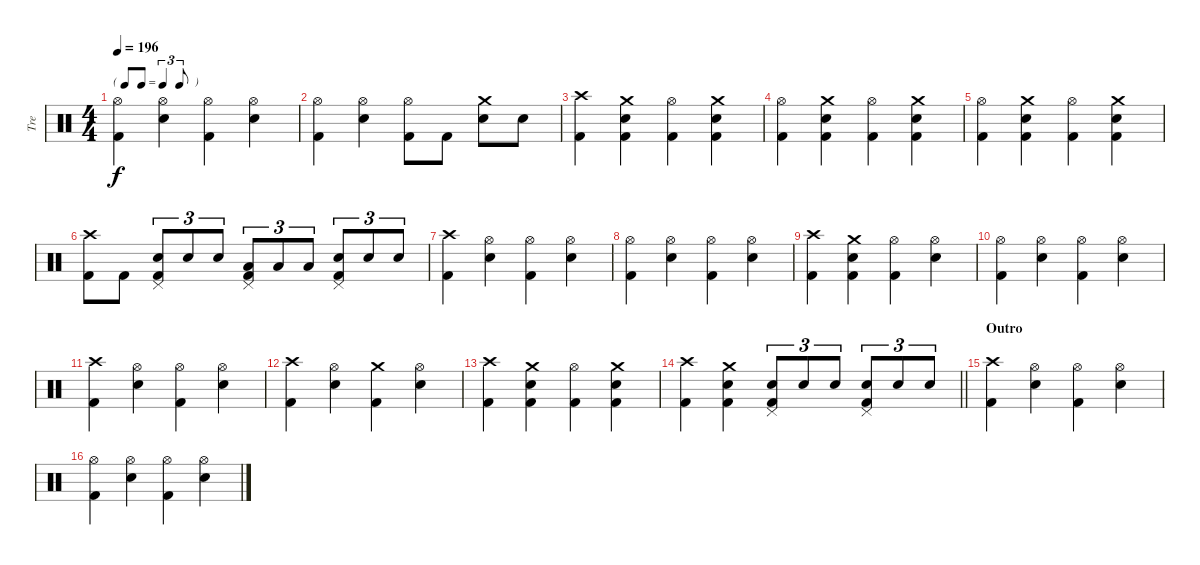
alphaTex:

\track ("Tre" "Tre") {instrument percussion}
\staff {score}
\articulation defaults
\ts (4 4)
\tf triplet8th
\tempo 196
\clef neutral
\ks c
("Hi-Hat (open)" "Kick (hit) 2").4{dy f} ("Hi-Hat (open)" "Snare (hit) 2").4 ("Hi-Hat (open)" "Kick (hit) 2").4 ("Hi-Hat (open)" "Snare (hit) 2").4 |
("Hi-Hat (open)" "Kick (hit) 2").4 ("Hi-Hat (open)" "Snare (hit) 2").4 ("Hi-Hat (open)" "Kick (hit) 2").8 "Kick (hit) 2".8 ("Crash medium (hit)" "Snare (hit) 2").8 "Snare (hit) 2".8 |
("Crash high (hit)" "Kick (hit) 2").4 ("Crash medium (hit)" "Snare (hit) 2" "Kick (hit) 2").4 ("Hi-Hat (open)" "Kick (hit) 2").4 ("Crash medium (hit)" "Snare (hit) 2" "Kick (hit) 2").4 |
("Hi-Hat (open)" "Kick (hit) 2").4 ("Crash medium (hit)" "Snare (hit) 2" "Kick (hit) 2").4 ("Hi-Hat (open)" "Kick (hit) 2").4 ("Crash medium (hit)" "Snare (hit) 2" "Kick (hit) 2").4 |
("Hi-Hat (open)" "Kick (hit) 2").4 ("Crash medium (hit)" "Snare (hit) 2" "Kick (hit) 2").4 ("Hi-Hat (open)" "Kick (hit) 2").4 ("Crash medium (hit)" "Snare (hit) 2" "Kick (hit) 2").4 |
("Crash high (hit)" "Kick (hit) 2").8 "Kick (hit) 2".8 ("Snare (hit) 2" "Pedal Hi-Hat (hit)" "Kick (hit) 2").8{tu (3 2)} "Snare (hit) 2".8{tu (3 2)} "Snare (hit) 2".8{tu (3 2)} ("Low Floor Tom (hit)" "Pedal Hi-Hat (hit)" "Kick (hit) 2").8{tu (3 2)} "Low Floor Tom (hit)".8{tu (3 2)} "Low Floor Tom (hit)".8{tu (3 2)} ("Snare (hit) 2" "Pedal Hi-Hat (hit)" "Kick (hit) 2").8{tu (3 2)} "Snare (hit) 2".8{tu (3 2)} "Snare (hit) 2".8{tu (3 2)} |
("Crash high (hit)" "Kick (hit) 2").4 ("Hi-Hat (open)" "Snare (hit) 2").4 ("Hi-Hat (open)" "Kick (hit) 2").4 ("Hi-Hat (open)" "Snare (hit) 2").4 |
("Hi-Hat (open)" "Kick (hit) 2").4 ("Hi-Hat (open)" "Snare (hit) 2").4 ("Hi-Hat (open)" "Kick (hit) 2").4 ("Hi-Hat (open)" "Snare (hit) 2").4 |
("Crash high (hit)" "Kick (hit) 2").4 ("Crash medium (hit)" "Snare (hit) 2" "Kick (hit) 2").4 ("Hi-Hat (open)" "Kick (hit) 2").4 ("Hi-Hat (open)" "Snare (hit) 2").4 |
("Hi-Hat (open)" "Kick (hit) 2").4 ("Hi-Hat (open)" "Snare (hit) 2").4 ("Hi-Hat (open)" "Kick (hit) 2").4 ("Hi-Hat (open)" "Snare (hit) 2").4 |
("Crash high (hit)" "Kick (hit) 2").4 ("Hi-Hat (open)" "Snare (hit) 2").4 ("Hi-Hat (open)" "Kick (hit) 2").4 ("Hi-Hat (open)" "Snare (hit) 2").4 |
("Crash high (hit)" "Kick (hit) 2").4 ("Hi-Hat (open)" "Snare (hit) 2").4 ("Crash medium (hit)" "Kick (hit) 2").4 ("Hi-Hat (open)" "Snare (hit) 2").4 |
("Crash high (hit)" "Kick (hit) 2").4 ("Crash medium (hit)" "Snare (hit) 2" "Kick (hit) 2").4 ("Hi-Hat (open)" "Kick (hit) 2").4 ("Crash medium (hit)" "Snare (hit) 2" "Kick (hit) 2").4 |
\barLineRight lightlight
("Crash high (hit)" "Kick (hit) 2").4 ("Crash medium (hit)" "Snare (hit) 2" "Kick (hit) 2").4 ("Snare (hit) 2" "Pedal Hi-Hat (hit)" "Kick (hit) 2").8{tu (3 2)} "Snare (hit) 2".8{tu (3 2)} "Snare (hit) 2".8{tu (3 2)} ("Snare (hit) 2" "Pedal Hi-Hat (hit)" "Kick (hit) 2").8{tu (3 2)} "Snare (hit) 2".8{tu (3 2)} "Snare (hit) 2".8{tu (3 2)} |
\section ("" "Outro")
("Crash high (hit)" "Kick (hit) 2").4 ("Hi-Hat (open)" "Snare (hit) 2").4 ("Hi-Hat (open)" "Kick (hit) 2").4 ("Hi-Hat (open)" "Snare (hit) 2").4 |
("Hi-Hat (open)" "Kick (hit) 2").4 ("Hi-Hat (open)" "Snare (hit) 2").4 ("Hi-Hat (open)" "Kick (hit) 2").4 ("Hi-Hat (open)" "Snare (hit) 2").4
